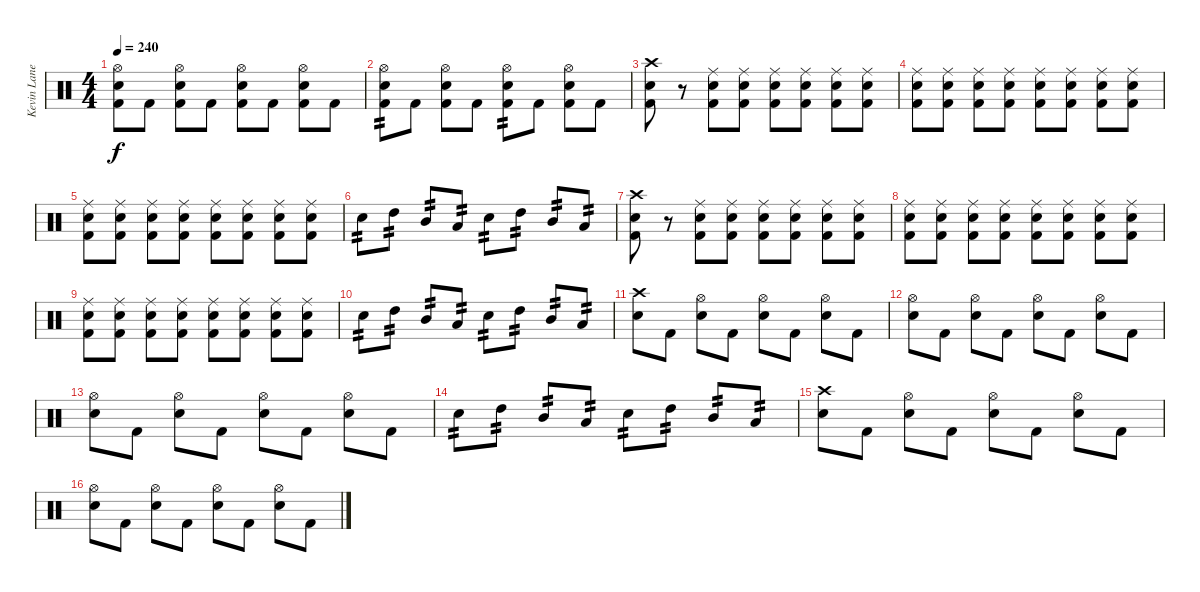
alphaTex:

\track ("Kevin Lane" "Kevin Lane") {instrument percussion}
\staff {score}
\articulation defaults
\ts (4 4)
\tempo 240
\clef neutral
\ks c
("Hi-Hat (open)" "Electric Snare (hit)" "Kick (hit) 2").8{dy f} "Kick (hit) 2".8 ("Hi-Hat (open)" "Electric Snare (hit)" "Kick (hit) 2").8 "Kick (hit) 2".8 ("Hi-Hat (open)" "Electric Snare (hit)" "Kick (hit) 2").8 "Kick (hit) 2".8 ("Hi-Hat (open)" "Electric Snare (hit)" "Kick (hit) 2").8 "Kick (hit) 2".8 |
("Hi-Hat (open)" "Electric Snare (hit)" "Kick (hit) 2").8{tp 2} "Kick (hit) 2".8 ("Hi-Hat (open)" "Electric Snare (hit)" "Kick (hit) 2").8 "Kick (hit) 2".8 ("Hi-Hat (open)" "Electric Snare (hit)" "Kick (hit) 2").8{tp 2} "Kick (hit) 2".8 ("Hi-Hat (open)" "Electric Snare (hit)" "Kick (hit) 2").8 "Kick (hit) 2".8 |
("Crash high (hit)" "Electric Snare (hit)" "Kick (hit) 2").8 r.8 ("Ride (middle)" "Electric Snare (hit)" "Kick (hit) 2").8 ("Ride (middle)" "Electric Snare (hit)" "Kick (hit) 2").8 ("Ride (middle)" "Electric Snare (hit)" "Kick (hit) 2").8 ("Ride (middle)" "Electric Snare (hit)" "Kick (hit) 2").8 ("Ride (middle)" "Electric Snare (hit)" "Kick (hit) 2").8 ("Ride (middle)" "Electric Snare (hit)" "Kick (hit) 2").8 |
("Ride (middle)" "Electric Snare (hit)" "Kick (hit) 2").8 ("Ride (middle)" "Electric Snare (hit)" "Kick (hit) 2").8 ("Ride (middle)" "Electric Snare (hit)" "Kick (hit) 2").8 ("Ride (middle)" "Electric Snare (hit)" "Kick (hit) 2").8 ("Ride (middle)" "Electric Snare (hit)" "Kick (hit) 2").8 ("Ride (middle)" "Electric Snare (hit)" "Kick (hit) 2").8 ("Ride (middle)" "Electric Snare (hit)" "Kick (hit) 2").8 ("Ride (middle)" "Electric Snare (hit)" "Kick (hit) 2").8 |
("Ride (middle)" "Electric Snare (hit)" "Kick (hit) 2").8 ("Ride (middle)" "Electric Snare (hit)" "Kick (hit) 2").8 ("Ride (middle)" "Electric Snare (hit)" "Kick (hit) 2").8 ("Ride (middle)" "Electric Snare (hit)" "Kick (hit) 2").8 ("Ride (middle)" "Electric Snare (hit)" "Kick (hit) 2").8 ("Ride (middle)" "Electric Snare (hit)" "Kick (hit) 2").8 ("Ride (middle)" "Electric Snare (hit)" "Kick (hit) 2").8 ("Ride (middle)" "Electric Snare (hit)" "Kick (hit) 2").8 |
"Electric Snare (hit)".8{tp 2} "High Tom (hit)".8{tp 2} "Mid Tom (hit)".8{tp 2} "Low Tom (hit)".8{tp 2} "Electric Snare (hit)".8{tp 2} "High Tom (hit)".8{tp 2} "Mid Tom (hit)".8{tp 2} "Low Tom (hit)".8{tp 2} |
("Crash high (hit)" "Electric Snare (hit)" "Kick (hit) 2").8 r.8 ("Ride (middle)" "Electric Snare (hit)" "Kick (hit) 2").8 ("Ride (middle)" "Electric Snare (hit)" "Kick (hit) 2").8 ("Ride (middle)" "Electric Snare (hit)" "Kick (hit) 2").8 ("Ride (middle)" "Electric Snare (hit)" "Kick (hit) 2").8 ("Ride (middle)" "Electric Snare (hit)" "Kick (hit) 2").8 ("Ride (middle)" "Electric Snare (hit)" "Kick (hit) 2").8 |
("Ride (middle)" "Electric Snare (hit)" "Kick (hit) 2").8 ("Ride (middle)" "Electric Snare (hit)" "Kick (hit) 2").8 ("Ride (middle)" "Electric Snare (hit)" "Kick (hit) 2").8 ("Ride (middle)" "Electric Snare (hit)" "Kick (hit) 2").8 ("Ride (middle)" "Electric Snare (hit)" "Kick (hit) 2").8 ("Ride (middle)" "Electric Snare (hit)" "Kick (hit) 2").8 ("Ride (middle)" "Electric Snare (hit)" "Kick (hit) 2").8 ("Ride (middle)" "Electric Snare (hit)" "Kick (hit) 2").8 |
("Ride (middle)" "Electric Snare (hit)" "Kick (hit) 2").8 ("Ride (middle)" "Electric Snare (hit)" "Kick (hit) 2").8 ("Ride (middle)" "Electric Snare (hit)" "Kick (hit) 2").8 ("Ride (middle)" "Electric Snare (hit)" "Kick (hit) 2").8 ("Ride (middle)" "Electric Snare (hit)" "Kick (hit) 2").8 ("Ride (middle)" "Electric Snare (hit)" "Kick (hit) 2").8 ("Ride (middle)" "Electric Snare (hit)" "Kick (hit) 2").8 ("Ride (middle)" "Electric Snare (hit)" "Kick (hit) 2").8 |
"Electric Snare (hit)".8{tp 2} "High Tom (hit)".8{tp 2} "Mid Tom (hit)".8{tp 2} "Low Tom (hit)".8{tp 2} "Electric Snare (hit)".8{tp 2} "High Tom (hit)".8{tp 2} "Mid Tom (hit)".8{tp 2} "Low Tom (hit)".8{tp 2} |
("Crash high (hit)" "Electric Snare (hit)").8 "Kick (hit) 2".8 ("Hi-Hat (open)" "Electric Snare (hit)").8 "Kick (hit) 2".8 ("Hi-Hat (open)" "Electric Snare (hit)").8 "Kick (hit) 2".8 ("Hi-Hat (open)" "Electric Snare (hit)").8 "Kick (hit) 2".8 |
("Hi-Hat (open)" "Electric Snare (hit)").8 "Kick (hit) 2".8 ("Hi-Hat (open)" "Electric Snare (hit)").8 "Kick (hit) 2".8 ("Hi-Hat (open)" "Electric Snare (hit)").8 "Kick (hit) 2".8 ("Hi-Hat (open)" "Electric Snare (hit)").8 "Kick (hit) 2".8 |
("Hi-Hat (open)" "Electric Snare (hit)").8 "Kick (hit) 2".8 ("Hi-Hat (open)" "Electric Snare (hit)").8 "Kick (hit) 2".8 ("Hi-Hat (open)" "Electric Snare (hit)").8 "Kick (hit) 2".8 ("Hi-Hat (open)" "Electric Snare (hit)").8 "Kick (hit) 2".8 |
"Electric Snare (hit)".8{tp 2} "High Tom (hit)".8{tp 2} "Mid Tom (hit)".8{tp 2} "Low Tom (hit)".8{tp 2} "Electric Snare (hit)".8{tp 2} "High Tom (hit)".8{tp 2} "Mid Tom (hit)".8{tp 2} "Low Tom (hit)".8{tp 2} |
("Crash high (hit)" "Electric Snare (hit)").8 "Kick (hit) 2".8 ("Hi-Hat (open)" "Electric Snare (hit)").8 "Kick (hit) 2".8 ("Hi-Hat (open)" "Electric Snare (hit)").8 "Kick (hit) 2".8 ("Hi-Hat (open)" "Electric Snare (hit)").8 "Kick (hit) 2".8 |
("Hi-Hat (open)" "Electric Snare (hit)").8 "Kick (hit) 2".8 ("Hi-Hat (open)" "Electric Snare (hit)").8 "Kick (hit) 2".8 ("Hi-Hat (open)" "Electric Snare (hit)").8 "Kick (hit) 2".8 ("Hi-Hat (open)" "Electric Snare (hit)").8 "Kick (hit) 2".8
